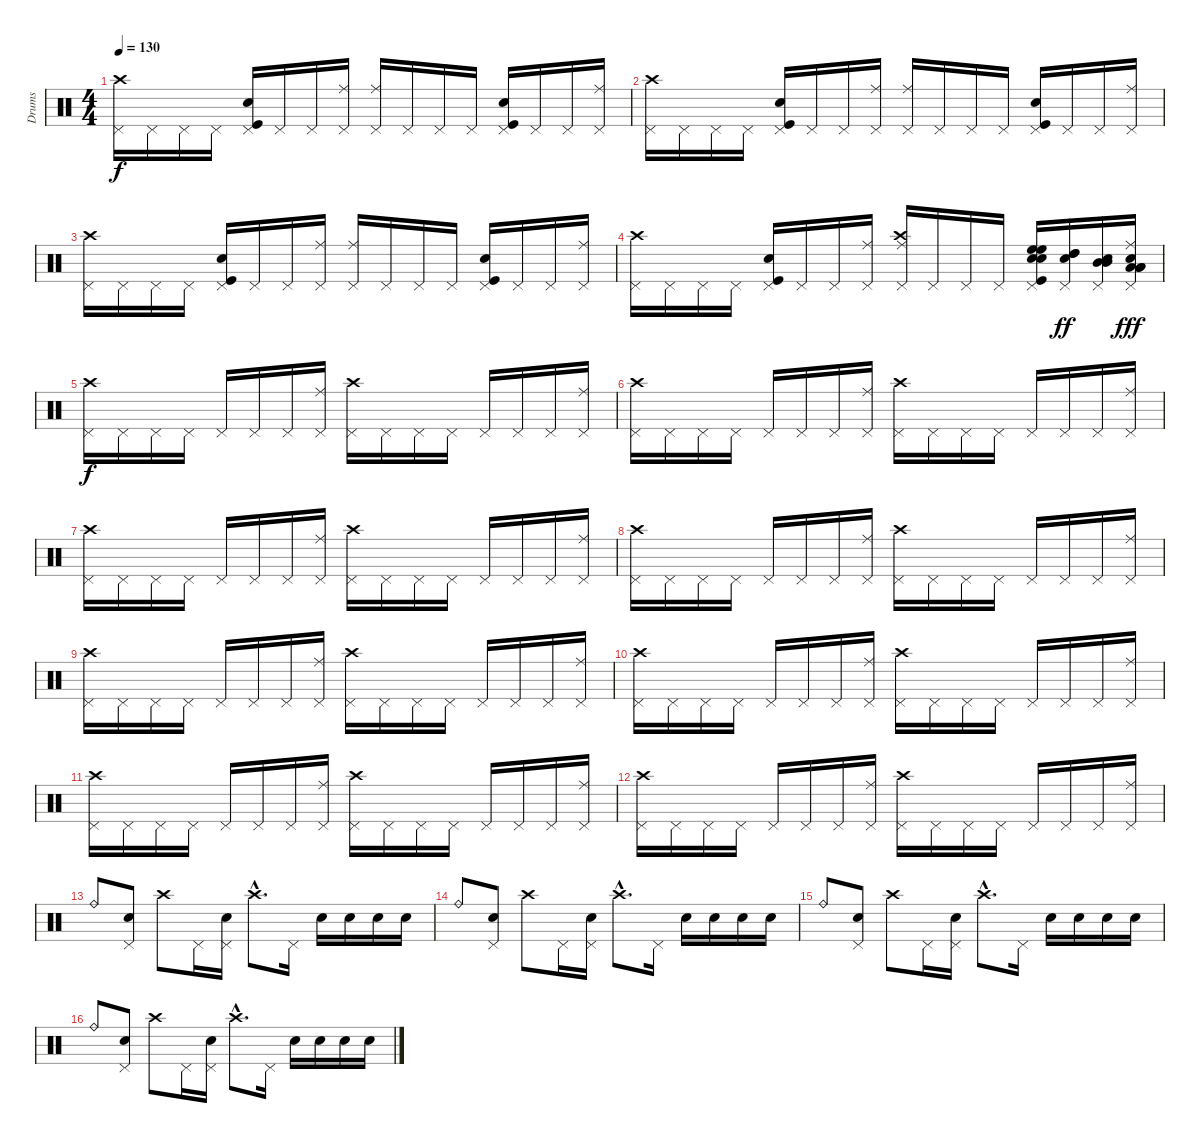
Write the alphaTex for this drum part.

\track ("Drums" "Drums") {instrument percussion}
\staff {score}
\articulation defaults
\ts (4 4)
\tempo 130
\clef neutral
\ks c
("Pedal Hi-Hat (hit)" "Crash high (hit)").16{dy f} "Pedal Hi-Hat (hit)".16 "Pedal Hi-Hat (hit)".16 "Pedal Hi-Hat (hit)".16 ("Pedal Hi-Hat (hit)" "Kick (hit)" "Electric Snare (hit)").16 "Pedal Hi-Hat (hit)".16 "Pedal Hi-Hat (hit)".16 ("Pedal Hi-Hat (hit)" "Ride (middle)").16 ("Pedal Hi-Hat (hit)" "Ride (middle)").16 "Pedal Hi-Hat (hit)".16 "Pedal Hi-Hat (hit)".16 "Pedal Hi-Hat (hit)".16 ("Kick (hit)" "Pedal Hi-Hat (hit)" "Electric Snare (hit)").16 "Pedal Hi-Hat (hit)".16 "Pedal Hi-Hat (hit)".16 ("Pedal Hi-Hat (hit)" "Ride (middle)").16 |
("Pedal Hi-Hat (hit)" "Crash high (hit)").16 "Pedal Hi-Hat (hit)".16 "Pedal Hi-Hat (hit)".16 "Pedal Hi-Hat (hit)".16 ("Pedal Hi-Hat (hit)" "Kick (hit)" "Electric Snare (hit)").16 "Pedal Hi-Hat (hit)".16 "Pedal Hi-Hat (hit)".16 ("Pedal Hi-Hat (hit)" "Ride (middle)").16 ("Pedal Hi-Hat (hit)" "Ride (middle)").16 "Pedal Hi-Hat (hit)".16 "Pedal Hi-Hat (hit)".16 "Pedal Hi-Hat (hit)".16 ("Kick (hit)" "Pedal Hi-Hat (hit)" "Electric Snare (hit)").16 "Pedal Hi-Hat (hit)".16 "Pedal Hi-Hat (hit)".16 ("Pedal Hi-Hat (hit)" "Ride (middle)").16 |
("Pedal Hi-Hat (hit)" "Crash high (hit)").16 "Pedal Hi-Hat (hit)".16 "Pedal Hi-Hat (hit)".16 "Pedal Hi-Hat (hit)".16 ("Pedal Hi-Hat (hit)" "Kick (hit)" "Electric Snare (hit)").16 "Pedal Hi-Hat (hit)".16 "Pedal Hi-Hat (hit)".16 ("Pedal Hi-Hat (hit)" "Ride (middle)").16 ("Pedal Hi-Hat (hit)" "Ride (middle)").16 "Pedal Hi-Hat (hit)".16 "Pedal Hi-Hat (hit)".16 "Pedal Hi-Hat (hit)".16 ("Kick (hit)" "Pedal Hi-Hat (hit)" "Electric Snare (hit)").16 "Pedal Hi-Hat (hit)".16 "Pedal Hi-Hat (hit)".16 ("Pedal Hi-Hat (hit)" "Ride (middle)").16 |
("Pedal Hi-Hat (hit)" "Crash high (hit)").16 "Pedal Hi-Hat (hit)".16 "Pedal Hi-Hat (hit)".16 "Pedal Hi-Hat (hit)".16 ("Pedal Hi-Hat (hit)" "Kick (hit)" "Electric Snare (hit)").16 "Pedal Hi-Hat (hit)".16 "Pedal Hi-Hat (hit)".16 ("Pedal Hi-Hat (hit)" "Ride (middle)").16 ("Pedal Hi-Hat (hit)" "Ride (middle)" "Crash high (hit)").16 "Pedal Hi-Hat (hit)".16 "Pedal Hi-Hat (hit)".16 "Pedal Hi-Hat (hit)".16 ("Kick (hit)" "Pedal Hi-Hat (hit)" "Electric Snare (hit)" "High Floor Tom (hit)" "High Floor Tom (hit)" "Snare (hit) 2").16 ("Pedal Hi-Hat (hit)" "High Tom (hit)" "High Tom (hit)" "Snare (hit) 2").16{dy ff} ("Pedal Hi-Hat (hit)" "Mid Tom (hit)" "Mid Tom (hit)" "Snare (hit) 2").16 ("Pedal Hi-Hat (hit)" "Ride (middle)" "Low Tom (hit)" "Low Tom (hit)" "Low Tom (hit)" "Snare (hit) 2").16{dy fff} |
("Pedal Hi-Hat (hit)" "Crash high (hit)").16{dy f} "Pedal Hi-Hat (hit)".16 "Pedal Hi-Hat (hit)".16 "Pedal Hi-Hat (hit)".16 "Pedal Hi-Hat (hit)".16 "Pedal Hi-Hat (hit)".16 "Pedal Hi-Hat (hit)".16 ("Pedal Hi-Hat (hit)" "Ride (middle)").16 ("Pedal Hi-Hat (hit)" "Crash high (hit)").16 "Pedal Hi-Hat (hit)".16 "Pedal Hi-Hat (hit)".16 "Pedal Hi-Hat (hit)".16 "Pedal Hi-Hat (hit)".16 "Pedal Hi-Hat (hit)".16 "Pedal Hi-Hat (hit)".16 ("Pedal Hi-Hat (hit)" "Ride (middle)").16 |
("Pedal Hi-Hat (hit)" "Crash high (hit)").16 "Pedal Hi-Hat (hit)".16 "Pedal Hi-Hat (hit)".16 "Pedal Hi-Hat (hit)".16 "Pedal Hi-Hat (hit)".16 "Pedal Hi-Hat (hit)".16 "Pedal Hi-Hat (hit)".16 ("Pedal Hi-Hat (hit)" "Ride (middle)").16 ("Pedal Hi-Hat (hit)" "Crash high (hit)").16 "Pedal Hi-Hat (hit)".16 "Pedal Hi-Hat (hit)".16 "Pedal Hi-Hat (hit)".16 "Pedal Hi-Hat (hit)".16 "Pedal Hi-Hat (hit)".16 "Pedal Hi-Hat (hit)".16 ("Pedal Hi-Hat (hit)" "Ride (middle)").16 |
("Pedal Hi-Hat (hit)" "Crash high (hit)").16 "Pedal Hi-Hat (hit)".16 "Pedal Hi-Hat (hit)".16 "Pedal Hi-Hat (hit)".16 "Pedal Hi-Hat (hit)".16 "Pedal Hi-Hat (hit)".16 "Pedal Hi-Hat (hit)".16 ("Pedal Hi-Hat (hit)" "Ride (middle)").16 ("Pedal Hi-Hat (hit)" "Crash high (hit)").16 "Pedal Hi-Hat (hit)".16 "Pedal Hi-Hat (hit)".16 "Pedal Hi-Hat (hit)".16 "Pedal Hi-Hat (hit)".16 "Pedal Hi-Hat (hit)".16 "Pedal Hi-Hat (hit)".16 ("Pedal Hi-Hat (hit)" "Ride (middle)").16 |
("Pedal Hi-Hat (hit)" "Crash high (hit)").16 "Pedal Hi-Hat (hit)".16 "Pedal Hi-Hat (hit)".16 "Pedal Hi-Hat (hit)".16 "Pedal Hi-Hat (hit)".16 "Pedal Hi-Hat (hit)".16 "Pedal Hi-Hat (hit)".16 ("Pedal Hi-Hat (hit)" "Ride (middle)").16 ("Pedal Hi-Hat (hit)" "Crash high (hit)").16 "Pedal Hi-Hat (hit)".16 "Pedal Hi-Hat (hit)".16 "Pedal Hi-Hat (hit)".16 "Pedal Hi-Hat (hit)".16 "Pedal Hi-Hat (hit)".16 "Pedal Hi-Hat (hit)".16 ("Pedal Hi-Hat (hit)" "Ride (middle)").16 |
("Pedal Hi-Hat (hit)" "Crash high (hit)").16 "Pedal Hi-Hat (hit)".16 "Pedal Hi-Hat (hit)".16 "Pedal Hi-Hat (hit)".16 "Pedal Hi-Hat (hit)".16 "Pedal Hi-Hat (hit)".16 "Pedal Hi-Hat (hit)".16 ("Pedal Hi-Hat (hit)" "Ride (middle)").16 ("Pedal Hi-Hat (hit)" "Crash high (hit)").16 "Pedal Hi-Hat (hit)".16 "Pedal Hi-Hat (hit)".16 "Pedal Hi-Hat (hit)".16 "Pedal Hi-Hat (hit)".16 "Pedal Hi-Hat (hit)".16 "Pedal Hi-Hat (hit)".16 ("Pedal Hi-Hat (hit)" "Ride (middle)").16 |
("Pedal Hi-Hat (hit)" "Crash high (hit)").16 "Pedal Hi-Hat (hit)".16 "Pedal Hi-Hat (hit)".16 "Pedal Hi-Hat (hit)".16 "Pedal Hi-Hat (hit)".16 "Pedal Hi-Hat (hit)".16 "Pedal Hi-Hat (hit)".16 ("Pedal Hi-Hat (hit)" "Ride (middle)").16 ("Pedal Hi-Hat (hit)" "Crash high (hit)").16 "Pedal Hi-Hat (hit)".16 "Pedal Hi-Hat (hit)".16 "Pedal Hi-Hat (hit)".16 "Pedal Hi-Hat (hit)".16 "Pedal Hi-Hat (hit)".16 "Pedal Hi-Hat (hit)".16 ("Pedal Hi-Hat (hit)" "Ride (middle)").16 |
("Pedal Hi-Hat (hit)" "Crash high (hit)").16 "Pedal Hi-Hat (hit)".16 "Pedal Hi-Hat (hit)".16 "Pedal Hi-Hat (hit)".16 "Pedal Hi-Hat (hit)".16 "Pedal Hi-Hat (hit)".16 "Pedal Hi-Hat (hit)".16 ("Pedal Hi-Hat (hit)" "Ride (middle)").16 ("Pedal Hi-Hat (hit)" "Crash high (hit)").16 "Pedal Hi-Hat (hit)".16 "Pedal Hi-Hat (hit)".16 "Pedal Hi-Hat (hit)".16 "Pedal Hi-Hat (hit)".16 "Pedal Hi-Hat (hit)".16 "Pedal Hi-Hat (hit)".16 ("Pedal Hi-Hat (hit)" "Ride (middle)").16 |
("Pedal Hi-Hat (hit)" "Crash high (hit)").16 "Pedal Hi-Hat (hit)".16 "Pedal Hi-Hat (hit)".16 "Pedal Hi-Hat (hit)".16 "Pedal Hi-Hat (hit)".16 "Pedal Hi-Hat (hit)".16 "Pedal Hi-Hat (hit)".16 ("Pedal Hi-Hat (hit)" "Ride (middle)").16 ("Pedal Hi-Hat (hit)" "Crash high (hit)").16 "Pedal Hi-Hat (hit)".16 "Pedal Hi-Hat (hit)".16 "Pedal Hi-Hat (hit)".16 "Pedal Hi-Hat (hit)".16 "Pedal Hi-Hat (hit)".16 "Pedal Hi-Hat (hit)".16 ("Pedal Hi-Hat (hit)" "Ride (middle)").16 |
"Ride (bell)".8 ("Pedal Hi-Hat (hit)" "Snare (hit) 2").8 "Crash high (hit)".8 "Pedal Hi-Hat (hit)".16 ("Pedal Hi-Hat (hit)" "Snare (hit) 2").16 "Crash high (hit)"{hac}.8{d} "Pedal Hi-Hat (hit)".16 "Snare (hit) 2".16 "Snare (hit) 2".16 "Snare (hit) 2".16 "Snare (hit) 2".16 |
"Ride (bell)".8 ("Pedal Hi-Hat (hit)" "Snare (hit) 2").8 "Crash high (hit)".8 "Pedal Hi-Hat (hit)".16 ("Pedal Hi-Hat (hit)" "Snare (hit) 2").16 "Crash high (hit)"{hac}.8{d} "Pedal Hi-Hat (hit)".16 "Snare (hit) 2".16 "Snare (hit) 2".16 "Snare (hit) 2".16 "Snare (hit) 2".16 |
"Ride (bell)".8 ("Pedal Hi-Hat (hit)" "Snare (hit) 2").8 "Crash high (hit)".8 "Pedal Hi-Hat (hit)".16 ("Pedal Hi-Hat (hit)" "Snare (hit) 2").16 "Crash high (hit)"{hac}.8{d} "Pedal Hi-Hat (hit)".16 "Snare (hit) 2".16 "Snare (hit) 2".16 "Snare (hit) 2".16 "Snare (hit) 2".16 |
"Ride (bell)".8 ("Pedal Hi-Hat (hit)" "Snare (hit) 2").8 "Crash high (hit)".8 "Pedal Hi-Hat (hit)".16 ("Pedal Hi-Hat (hit)" "Snare (hit) 2").16 "Crash high (hit)"{hac}.8{d} "Pedal Hi-Hat (hit)".16 "Snare (hit) 2".16 "Snare (hit) 2".16 "Snare (hit) 2".16 "Snare (hit) 2".16
